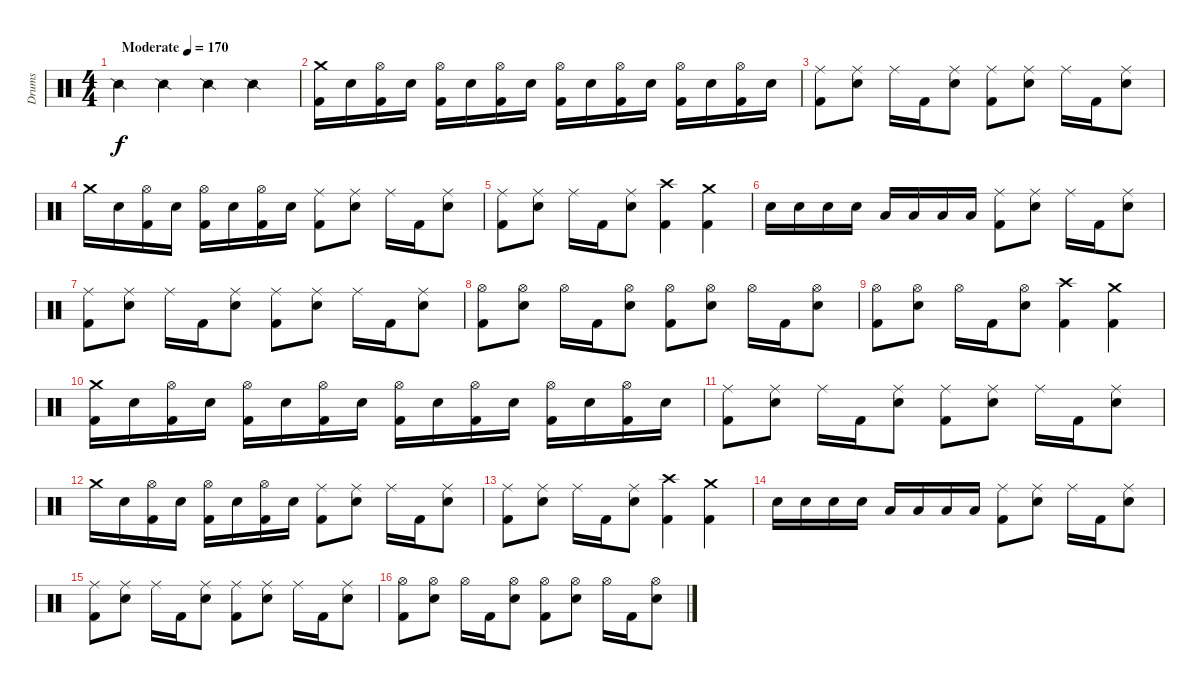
\track ("Drums" "Drums") {instrument percussion}
\staff {score}
\articulation defaults
\ts (4 4)
\tempo (170 "Moderate")
\clef neutral
\ks c "Snare (side stick) 2".4{dy f} "Snare (side stick) 2".4 "Snare (side stick) 2".4 "Snare (side stick) 2".4
|
("Crash medium (hit)" "Kick (hit) 2").16 "Electric Snare (hit)".16 ("Hi-Hat (open)" "Kick (hit) 2").16 "Electric Snare (hit)".16 ("Hi-Hat (open)" "Kick (hit) 2").16 "Electric Snare (hit)".16 ("Hi-Hat (open)" "Kick (hit) 2").16 "Electric Snare (hit)".16 ("Hi-Hat (open)" "Kick (hit) 2").16 "Electric Snare (hit)".16 ("Hi-Hat (open)" "Kick (hit) 2").16 "Electric Snare (hit)".16 ("Hi-Hat (open)" "Kick (hit) 2").16 "Electric Snare (hit)".16 ("Hi-Hat (open)" "Kick (hit) 2").16 "Electric Snare (hit)".16 |
("Ride (middle)" "Kick (hit) 2").8 ("Ride (middle)" "Electric Snare (hit)").8 "Ride (middle)".16 "Kick (hit) 2".16 ("Ride (middle)" "Electric Snare (hit)").8 ("Ride (middle)" "Kick (hit) 2").8 ("Ride (middle)" "Electric Snare (hit)").8 "Ride (middle)".16 "Kick (hit) 2".16 ("Ride (middle)" "Electric Snare (hit)").8 |
"Crash medium (hit)".16 "Electric Snare (hit)".16 ("Hi-Hat (open)" "Kick (hit) 2").16 "Electric Snare (hit)".16 ("Hi-Hat (open)" "Kick (hit) 2").16 "Electric Snare (hit)".16 ("Hi-Hat (open)" "Kick (hit) 2").16 "Electric Snare (hit)".16 ("Ride (middle)" "Kick (hit) 2").8 ("Ride (middle)" "Electric Snare (hit)").8 "Ride (middle)".16 "Kick (hit) 2".16 ("Ride (middle)" "Electric Snare (hit)").8 |
("Ride (middle)" "Kick (hit) 2").8 ("Ride (middle)" "Electric Snare (hit)").8 "Ride (middle)".16 "Kick (hit) 2".16 ("Ride (middle)" "Electric Snare (hit)").8 ("Crash high (hit)" "Kick (hit) 2").4 ("Crash medium (hit)" "Kick (hit) 2").4 |
"Electric Snare (hit)".16 "Electric Snare (hit)".16 "Electric Snare (hit)".16 "Electric Snare (hit)".16 "Low Tom (hit)".16 "Low Tom (hit)".16 "Low Tom (hit)".16 "Low Tom (hit)".16 ("Ride (middle)" "Kick (hit) 2").8 ("Ride (middle)" "Electric Snare (hit)").8 "Ride (middle)".16 "Kick (hit) 2".16 ("Ride (middle)" "Electric Snare (hit)").8 |
("Ride (middle)" "Kick (hit) 2").8 ("Ride (middle)" "Electric Snare (hit)").8 "Ride (middle)".16 "Kick (hit) 2".16 ("Ride (middle)" "Electric Snare (hit)").8 ("Ride (middle)" "Kick (hit) 2").8 ("Ride (middle)" "Electric Snare (hit)").8 "Ride (middle)".16 "Kick (hit) 2".16 ("Ride (middle)" "Electric Snare (hit)").8 |
("Hi-Hat (open)" "Kick (hit) 2").8 ("Hi-Hat (open)" "Electric Snare (hit)").8 "Hi-Hat (open)".16 "Kick (hit) 2".16 ("Hi-Hat (open)" "Electric Snare (hit)").8 ("Hi-Hat (open)" "Kick (hit) 2").8 ("Hi-Hat (open)" "Electric Snare (hit)").8 "Hi-Hat (open)".16 "Kick (hit) 2".16 ("Hi-Hat (open)" "Electric Snare (hit)").8 |
("Hi-Hat (open)" "Kick (hit) 2").8 ("Hi-Hat (open)" "Electric Snare (hit)").8 "Hi-Hat (open)".16 "Kick (hit) 2".16 ("Hi-Hat (open)" "Electric Snare (hit)").8 ("Crash high (hit)" "Kick (hit) 2").4 ("Crash medium (hit)" "Kick (hit) 2").4 |
("Crash medium (hit)" "Kick (hit) 2").16 "Electric Snare (hit)".16 ("Hi-Hat (open)" "Kick (hit) 2").16 "Electric Snare (hit)".16 ("Hi-Hat (open)" "Kick (hit) 2").16 "Electric Snare (hit)".16 ("Hi-Hat (open)" "Kick (hit) 2").16 "Electric Snare (hit)".16 ("Hi-Hat (open)" "Kick (hit) 2").16 "Electric Snare (hit)".16 ("Hi-Hat (open)" "Kick (hit) 2").16 "Electric Snare (hit)".16 ("Hi-Hat (open)" "Kick (hit) 2").16 "Electric Snare (hit)".16 ("Hi-Hat (open)" "Kick (hit) 2").16 "Electric Snare (hit)".16 |
("Ride (middle)" "Kick (hit) 2").8 ("Ride (middle)" "Electric Snare (hit)").8 "Ride (middle)".16 "Kick (hit) 2".16 ("Ride (middle)" "Electric Snare (hit)").8 ("Ride (middle)" "Kick (hit) 2").8 ("Ride (middle)" "Electric Snare (hit)").8 "Ride (middle)".16 "Kick (hit) 2".16 ("Ride (middle)" "Electric Snare (hit)").8 |
"Crash medium (hit)".16 "Electric Snare (hit)".16 ("Hi-Hat (open)" "Kick (hit) 2").16 "Electric Snare (hit)".16 ("Hi-Hat (open)" "Kick (hit) 2").16 "Electric Snare (hit)".16 ("Hi-Hat (open)" "Kick (hit) 2").16 "Electric Snare (hit)".16 ("Ride (middle)" "Kick (hit) 2").8 ("Ride (middle)" "Electric Snare (hit)").8 "Ride (middle)".16 "Kick (hit) 2".16 ("Ride (middle)" "Electric Snare (hit)").8 |
("Ride (middle)" "Kick (hit) 2").8 ("Ride (middle)" "Electric Snare (hit)").8 "Ride (middle)".16 "Kick (hit) 2".16 ("Ride (middle)" "Electric Snare (hit)").8 ("Crash high (hit)" "Kick (hit) 2").4 ("Crash medium (hit)" "Kick (hit) 2").4 |
"Electric Snare (hit)".16 "Electric Snare (hit)".16 "Electric Snare (hit)".16 "Electric Snare (hit)".16 "Low Tom (hit)".16 "Low Tom (hit)".16 "Low Tom (hit)".16 "Low Tom (hit)".16 ("Ride (middle)" "Kick (hit) 2").8 ("Ride (middle)" "Electric Snare (hit)").8 "Ride (middle)".16 "Kick (hit) 2".16 ("Ride (middle)" "Electric Snare (hit)").8 |
("Ride (middle)" "Kick (hit) 2").8 ("Ride (middle)" "Electric Snare (hit)").8 "Ride (middle)".16 "Kick (hit) 2".16 ("Ride (middle)" "Electric Snare (hit)").8 ("Ride (middle)" "Kick (hit) 2").8 ("Ride (middle)" "Electric Snare (hit)").8 "Ride (middle)".16 "Kick (hit) 2".16 ("Ride (middle)" "Electric Snare (hit)").8 |
("Hi-Hat (open)" "Kick (hit) 2").8 ("Hi-Hat (open)" "Electric Snare (hit)").8 "Hi-Hat (open)".16 "Kick (hit) 2".16 ("Hi-Hat (open)" "Electric Snare (hit)").8 ("Hi-Hat (open)" "Kick (hit) 2").8 ("Hi-Hat (open)" "Electric Snare (hit)").8 "Hi-Hat (open)".16 "Kick (hit) 2".16 ("Hi-Hat (open)" "Electric Snare (hit)").8
